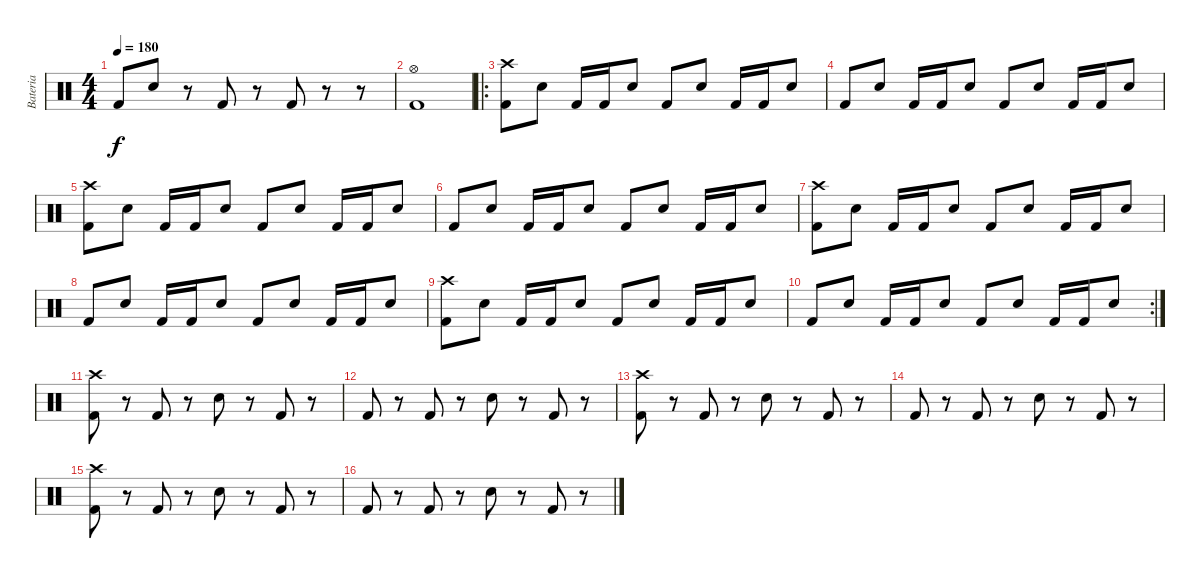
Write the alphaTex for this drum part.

\track ("Bateria" "Bateria") {instrument percussion}
\staff {score}
\articulation defaults
\ts (4 4)
\tempo 180
\clef neutral
\ks c "Kick (hit) 2".8{dy f} "Electric Snare (hit)".8
r.8 "Kick (hit) 2".8 r.8 "Kick (hit) 2".8 r.8 r.8 |
("Hi-Hat (open)" "Kick (hit) 2").1 |
\ro
("Kick (hit) 2" "Crash high (hit)").8 "Electric Snare (hit)".8 "Kick (hit) 2".16 "Kick (hit) 2".16 "Electric Snare (hit)".8 "Kick (hit) 2".8 "Electric Snare (hit)".8 "Kick (hit) 2".16 "Kick (hit) 2".16 "Electric Snare (hit)".8 |
"Kick (hit) 2".8 "Electric Snare (hit)".8 "Kick (hit) 2".16 "Kick (hit) 2".16 "Electric Snare (hit)".8 "Kick (hit) 2".8 "Electric Snare (hit)".8 "Kick (hit) 2".16 "Kick (hit) 2".16 "Electric Snare (hit)".8 |
("Kick (hit) 2" "Crash high (hit)").8 "Electric Snare (hit)".8 "Kick (hit) 2".16 "Kick (hit) 2".16 "Electric Snare (hit)".8 "Kick (hit) 2".8 "Electric Snare (hit)".8 "Kick (hit) 2".16 "Kick (hit) 2".16 "Electric Snare (hit)".8 |
"Kick (hit) 2".8 "Electric Snare (hit)".8 "Kick (hit) 2".16 "Kick (hit) 2".16 "Electric Snare (hit)".8 "Kick (hit) 2".8 "Electric Snare (hit)".8 "Kick (hit) 2".16 "Kick (hit) 2".16 "Electric Snare (hit)".8 |
("Kick (hit) 2" "Crash high (hit)").8 "Electric Snare (hit)".8 "Kick (hit) 2".16 "Kick (hit) 2".16 "Electric Snare (hit)".8 "Kick (hit) 2".8 "Electric Snare (hit)".8 "Kick (hit) 2".16 "Kick (hit) 2".16 "Electric Snare (hit)".8 |
"Kick (hit) 2".8 "Electric Snare (hit)".8 "Kick (hit) 2".16 "Kick (hit) 2".16 "Electric Snare (hit)".8 "Kick (hit) 2".8 "Electric Snare (hit)".8 "Kick (hit) 2".16 "Kick (hit) 2".16 "Electric Snare (hit)".8 |
("Kick (hit) 2" "Crash high (hit)").8 "Electric Snare (hit)".8 "Kick (hit) 2".16 "Kick (hit) 2".16 "Electric Snare (hit)".8 "Kick (hit) 2".8 "Electric Snare (hit)".8 "Kick (hit) 2".16 "Kick (hit) 2".16 "Electric Snare (hit)".8 |
\rc 2 "Kick (hit) 2".8 "Electric Snare (hit)".8 "Kick (hit) 2".16 "Kick (hit) 2".16 "Electric Snare (hit)".8 "Kick (hit) 2".8 "Electric Snare (hit)".8 "Kick (hit) 2".16 "Kick (hit) 2".16 "Electric Snare (hit)".8
|
("Kick (hit) 2" "Crash high (hit)").8 r.8 "Kick (hit) 2".8 r.8 "Electric Snare (hit)".8 r.8 "Kick (hit) 2".8 r.8 |
"Kick (hit) 2".8 r.8 "Kick (hit) 2".8 r.8 "Electric Snare (hit)".8 r.8 "Kick (hit) 2".8 r.8 |
("Kick (hit) 2" "Crash high (hit)").8 r.8 "Kick (hit) 2".8 r.8 "Electric Snare (hit)".8 r.8 "Kick (hit) 2".8 r.8 |
"Kick (hit) 2".8 r.8 "Kick (hit) 2".8 r.8 "Electric Snare (hit)".8 r.8 "Kick (hit) 2".8 r.8 |
("Kick (hit) 2" "Crash high (hit)").8 r.8 "Kick (hit) 2".8 r.8 "Electric Snare (hit)".8 r.8 "Kick (hit) 2".8 r.8 |
"Kick (hit) 2".8 r.8 "Kick (hit) 2".8 r.8 "Electric Snare (hit)".8 r.8 "Kick (hit) 2".8 r.8
